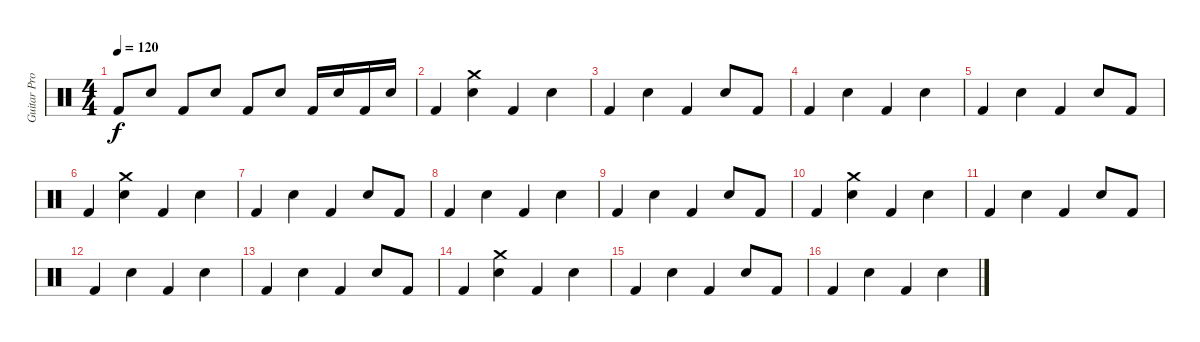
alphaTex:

\track ("Guitar Pro" "Guitar Pro") {instrument percussion}
\staff {score}
\articulation defaults
\ts (4 4)
\tempo 120
\clef neutral
\ks c "Kick (hit) 2".8{dy f} "Snare (hit) 2".8 "Kick (hit) 2".8 "Snare (hit) 2".8 "Kick (hit) 2".8 "Snare (hit) 2".8 "Kick (hit) 2".16 "Snare (hit) 2".16 "Kick (hit) 2".16 "Snare (hit) 2".16
|
"Kick (hit) 2".4 ("Snare (hit) 2" "Crash medium (hit)").4 "Kick (hit) 2".4 "Snare (hit) 2".4 |
"Kick (hit) 2".4 "Snare (hit) 2".4 "Kick (hit) 2".4 "Snare (hit) 2".8 "Kick (hit) 2".8 |
"Kick (hit) 2".4 "Snare (hit) 2".4 "Kick (hit) 2".4 "Snare (hit) 2".4 |
"Kick (hit) 2".4 "Snare (hit) 2".4 "Kick (hit) 2".4 "Snare (hit) 2".8 "Kick (hit) 2".8 |
"Kick (hit) 2".4 ("Snare (hit) 2" "Crash medium (hit)").4 "Kick (hit) 2".4 "Snare (hit) 2".4 |
"Kick (hit) 2".4 "Snare (hit) 2".4 "Kick (hit) 2".4 "Snare (hit) 2".8 "Kick (hit) 2".8 |
"Kick (hit) 2".4 "Snare (hit) 2".4 "Kick (hit) 2".4 "Snare (hit) 2".4 |
"Kick (hit) 2".4 "Snare (hit) 2".4 "Kick (hit) 2".4 "Snare (hit) 2".8 "Kick (hit) 2".8 |
"Kick (hit) 2".4 ("Snare (hit) 2" "Crash medium (hit)").4 "Kick (hit) 2".4 "Snare (hit) 2".4 |
"Kick (hit) 2".4 "Snare (hit) 2".4 "Kick (hit) 2".4 "Snare (hit) 2".8 "Kick (hit) 2".8 |
"Kick (hit) 2".4 "Snare (hit) 2".4 "Kick (hit) 2".4 "Snare (hit) 2".4 |
"Kick (hit) 2".4 "Snare (hit) 2".4 "Kick (hit) 2".4 "Snare (hit) 2".8 "Kick (hit) 2".8 |
"Kick (hit) 2".4 ("Snare (hit) 2" "Crash medium (hit)").4 "Kick (hit) 2".4 "Snare (hit) 2".4 |
"Kick (hit) 2".4 "Snare (hit) 2".4 "Kick (hit) 2".4 "Snare (hit) 2".8 "Kick (hit) 2".8 |
"Kick (hit) 2".4 "Snare (hit) 2".4 "Kick (hit) 2".4 "Snare (hit) 2".4
